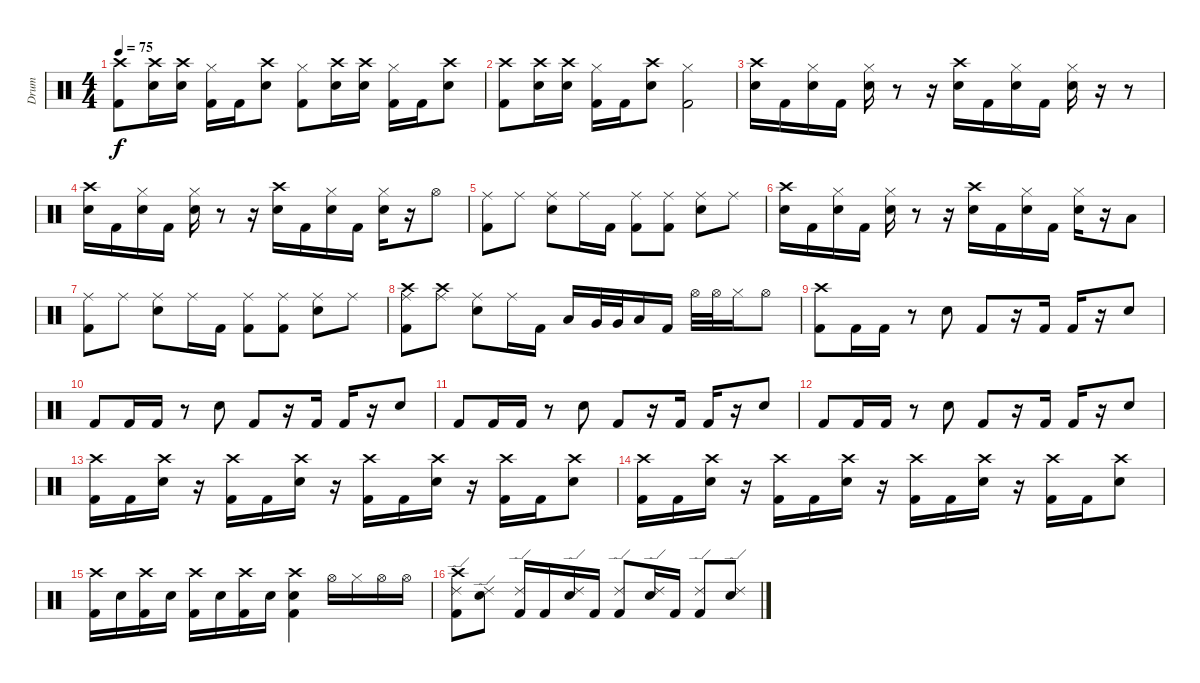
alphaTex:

\track ("Drum" "Drum") {instrument percussion}
\staff {score}
\articulation defaults
\ts (4 4)
\tempo 75
\clef neutral
\ks c
("Crash high (hit)" "Kick (hit) 2").8{dy f} ("Crash high (hit)" "Electric Snare (hit)").16 ("Crash high (hit)" "Electric Snare (hit)").16 ("Hi-Hat (closed)" "Kick (hit) 2").16 "Kick (hit) 2".16 ("Crash high (hit)" "Electric Snare (hit)").8 ("Hi-Hat (closed)" "Kick (hit) 2").8 ("Crash high (hit)" "Electric Snare (hit)").16 ("Crash high (hit)" "Electric Snare (hit)").16 ("Hi-Hat (closed)" "Kick (hit) 2").16 "Kick (hit) 2".16 ("Crash high (hit)" "Electric Snare (hit)").8 |
("Crash high (hit)" "Kick (hit) 2").8 ("Crash high (hit)" "Electric Snare (hit)").16 ("Crash high (hit)" "Electric Snare (hit)").16 ("Hi-Hat (closed)" "Kick (hit) 2").16 "Kick (hit) 2".16 ("Crash high (hit)" "Electric Snare (hit)").8 ("Hi-Hat (closed)" "Kick (hit) 2").2 |
("Crash high (hit)" "Electric Snare (hit)").16 "Kick (hit) 2".16 ("Hi-Hat (closed)" "Electric Snare (hit)").16 "Kick (hit) 2".16 ("Hi-Hat (closed)" "Electric Snare (hit)").16 r.8 r.16 ("Crash high (hit)" "Electric Snare (hit)").16 "Kick (hit) 2".16 ("Hi-Hat (closed)" "Electric Snare (hit)").16 "Kick (hit) 2".16 ("Hi-Hat (closed)" "Electric Snare (hit)").16 r.16 r.8 |
("Crash high (hit)" "Electric Snare (hit)").16 "Kick (hit) 2".16 ("Hi-Hat (closed)" "Electric Snare (hit)").16 "Kick (hit) 2".16 ("Hi-Hat (closed)" "Electric Snare (hit)").16 r.8 r.16 ("Crash high (hit)" "Electric Snare (hit)").16 "Kick (hit) 2".16 ("Hi-Hat (closed)" "Electric Snare (hit)").16 "Kick (hit) 2".16 ("Hi-Hat (closed)" "Electric Snare (hit)").16 r.16 "Hi-Hat (open)".8 |
("Ride (middle)" "Kick (hit) 2").8 "Ride (middle)".8 ("Ride (middle)" "Electric Snare (hit)").8 "Ride (middle)".16 "Kick (hit) 2".16 ("Ride (middle)" "Kick (hit) 2").8 ("Ride (middle)" "Kick (hit) 2").8 ("Ride (middle)" "Electric Snare (hit)").8 "Ride (middle)".8 |
("Crash high (hit)" "Electric Snare (hit)").16 "Kick (hit) 2".16 ("Hi-Hat (closed)" "Electric Snare (hit)").16 "Kick (hit) 2".16 ("Hi-Hat (closed)" "Electric Snare (hit)").16 r.8 r.16 ("Crash high (hit)" "Electric Snare (hit)").16 "Kick (hit) 2".16 ("Hi-Hat (closed)" "Electric Snare (hit)").16 "Kick (hit) 2".16 ("Hi-Hat (closed)" "Electric Snare (hit)").16 r.16 "Low Tom (hit)".8 |
("Ride (middle)" "Kick (hit) 2").8 "Ride (middle)".8 ("Ride (middle)" "Electric Snare (hit)").8 "Ride (middle)".16 "Kick (hit) 2".16 ("Ride (middle)" "Kick (hit) 2").8 ("Ride (middle)" "Kick (hit) 2").8 ("Ride (middle)" "Electric Snare (hit)").8 "Ride (middle)".8 |
("Ride (middle)" "Crash high (hit)" "Kick (hit) 2").8 ("Ride (middle)" "Crash high (hit)").8 ("Ride (middle)" "Electric Snare (hit)").8 "Ride (middle)".16 "Kick (hit) 2".16 "Low Tom (hit)".16 "Very Low Tom (hit)".32 "Very Low Tom (hit)".32 "Low Floor Tom (hit)".16 "Kick (hit) 2".16 "Hi-Hat (open)".32 "Hi-Hat (open)".32 "Hi-Hat (closed)".16 "Hi-Hat (open)".8 |
("Crash high (hit)" "Kick (hit) 2").8 "Kick (hit) 2".16 "Kick (hit) 2".16 r.8 "Electric Snare (hit)".8 "Kick (hit) 2".8 r.16 "Kick (hit) 2".16 "Kick (hit) 2".16 r.16 "Electric Snare (hit)".8 |
"Kick (hit) 2".8 "Kick (hit) 2".16 "Kick (hit) 2".16 r.8 "Electric Snare (hit)".8 "Kick (hit) 2".8 r.16 "Kick (hit) 2".16 "Kick (hit) 2".16 r.16 "Electric Snare (hit)".8 |
"Kick (hit) 2".8 "Kick (hit) 2".16 "Kick (hit) 2".16 r.8 "Electric Snare (hit)".8 "Kick (hit) 2".8 r.16 "Kick (hit) 2".16 "Kick (hit) 2".16 r.16 "Electric Snare (hit)".8 |
"Kick (hit) 2".8 "Kick (hit) 2".16 "Kick (hit) 2".16 r.8 "Electric Snare (hit)".8 "Kick (hit) 2".8 r.16 "Kick (hit) 2".16 "Kick (hit) 2".16 r.16 "Electric Snare (hit)".8 |
("Crash high (hit)" "Kick (hit) 2").16 "Kick (hit) 2".16 ("Crash high (hit)" "Electric Snare (hit)").16 r.16 ("Crash high (hit)" "Kick (hit) 2").16 "Kick (hit) 2".16 ("Crash high (hit)" "Electric Snare (hit)").16 r.16 ("Crash high (hit)" "Kick (hit) 2").16 "Kick (hit) 2".16 ("Crash high (hit)" "Electric Snare (hit)").16 r.16 ("Crash high (hit)" "Kick (hit) 2").16 "Kick (hit) 2".16 ("Crash high (hit)" "Electric Snare (hit)").8 |
("Crash high (hit)" "Kick (hit) 2").16 "Kick (hit) 2".16 ("Crash high (hit)" "Electric Snare (hit)").16 r.16 ("Crash high (hit)" "Kick (hit) 2").16 "Kick (hit) 2".16 ("Crash high (hit)" "Electric Snare (hit)").16 r.16 ("Crash high (hit)" "Kick (hit) 2").16 "Kick (hit) 2".16 ("Crash high (hit)" "Electric Snare (hit)").16 r.16 ("Crash high (hit)" "Kick (hit) 2").16 "Kick (hit) 2".16 ("Crash high (hit)" "Electric Snare (hit)").8 |
("Crash high (hit)" "Kick (hit) 2").16 "Electric Snare (hit)".16 ("Crash high (hit)" "Kick (hit) 2").16 "Electric Snare (hit)".16 ("Crash high (hit)" "Kick (hit) 2").16 "Electric Snare (hit)".16 ("Crash high (hit)" "Kick (hit) 2").16 "Electric Snare (hit)".16 ("Crash high (hit)" "Electric Snare (hit)" "Kick (hit) 2").4 "Hi-Hat (open)".16 "Hi-Hat (closed)".16 "Hi-Hat (open)".16 "Hi-Hat (open)".16 |
("Ride (edge) 2" "Kick (hit) 2" "Crash high (hit)").8 ("Ride (edge) 2" "Electric Snare (hit)").8 ("Ride (edge) 2" "Kick (hit) 2").16 "Kick (hit) 2".16 ("Ride (edge) 2" "Electric Snare (hit)").16 "Kick (hit) 2".16 ("Ride (edge) 2" "Kick (hit) 2").8 ("Ride (edge) 2" "Electric Snare (hit)").16 "Kick (hit) 2".16 ("Ride (edge) 2" "Kick (hit) 2").8 ("Ride (edge) 2" "Electric Snare (hit)").8
